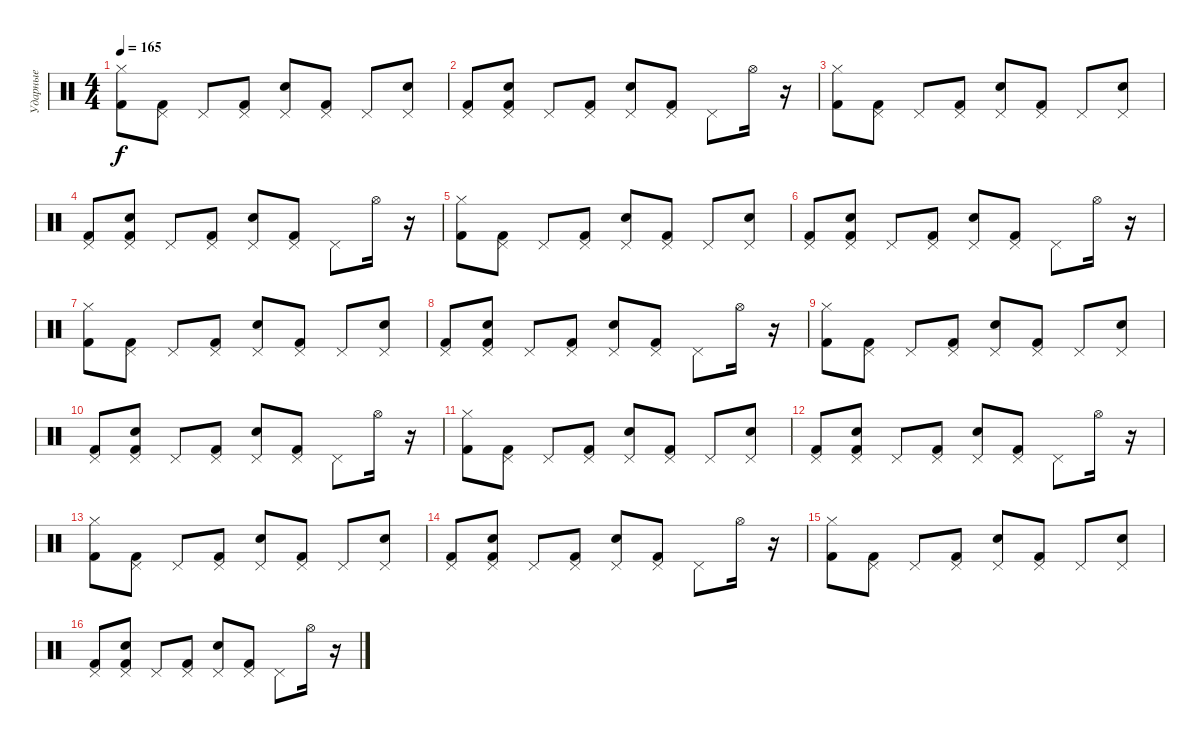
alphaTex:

\track ("Ударные" "Ударные") {instrument percussion}
\staff {score}
\articulation defaults
\ts (4 4)
\tempo 165
\clef neutral
\ks c
("Hi-Hat (closed)" "Kick (hit) 2").8{dy f} ("Pedal Hi-Hat (hit)" "Kick (hit) 2").8 "Pedal Hi-Hat (hit)".8 ("Pedal Hi-Hat (hit)" "Kick (hit) 2").8 ("Pedal Hi-Hat (hit)" "Electric Snare (hit)").8 ("Pedal Hi-Hat (hit)" "Kick (hit) 2").8 "Pedal Hi-Hat (hit)".8 ("Pedal Hi-Hat (hit)" "Electric Snare (hit)").8 |
("Pedal Hi-Hat (hit)" "Kick (hit) 2").8 ("Pedal Hi-Hat (hit)" "Electric Snare (hit)" "Kick (hit) 2").8 "Pedal Hi-Hat (hit)".8 ("Pedal Hi-Hat (hit)" "Kick (hit) 2").8 ("Pedal Hi-Hat (hit)" "Electric Snare (hit)").8 ("Pedal Hi-Hat (hit)" "Kick (hit) 2").8 "Pedal Hi-Hat (hit)".8 "Hi-Hat (open)".16 r.16 |
("Hi-Hat (closed)" "Kick (hit) 2").8 ("Pedal Hi-Hat (hit)" "Kick (hit) 2").8 "Pedal Hi-Hat (hit)".8 ("Pedal Hi-Hat (hit)" "Kick (hit) 2").8 ("Pedal Hi-Hat (hit)" "Electric Snare (hit)").8 ("Pedal Hi-Hat (hit)" "Kick (hit) 2").8 "Pedal Hi-Hat (hit)".8 ("Pedal Hi-Hat (hit)" "Electric Snare (hit)").8 |
("Pedal Hi-Hat (hit)" "Kick (hit) 2").8 ("Pedal Hi-Hat (hit)" "Electric Snare (hit)" "Kick (hit) 2").8 "Pedal Hi-Hat (hit)".8 ("Pedal Hi-Hat (hit)" "Kick (hit) 2").8 ("Pedal Hi-Hat (hit)" "Electric Snare (hit)").8 ("Pedal Hi-Hat (hit)" "Kick (hit) 2").8 "Pedal Hi-Hat (hit)".8 "Hi-Hat (open)".16 r.16 |
("Hi-Hat (closed)" "Kick (hit) 2").8 ("Pedal Hi-Hat (hit)" "Kick (hit) 2").8 "Pedal Hi-Hat (hit)".8 ("Pedal Hi-Hat (hit)" "Kick (hit) 2").8 ("Pedal Hi-Hat (hit)" "Electric Snare (hit)").8 ("Pedal Hi-Hat (hit)" "Kick (hit) 2").8 "Pedal Hi-Hat (hit)".8 ("Pedal Hi-Hat (hit)" "Electric Snare (hit)").8 |
("Pedal Hi-Hat (hit)" "Kick (hit) 2").8 ("Pedal Hi-Hat (hit)" "Electric Snare (hit)" "Kick (hit) 2").8 "Pedal Hi-Hat (hit)".8 ("Pedal Hi-Hat (hit)" "Kick (hit) 2").8 ("Pedal Hi-Hat (hit)" "Electric Snare (hit)").8 ("Pedal Hi-Hat (hit)" "Kick (hit) 2").8 "Pedal Hi-Hat (hit)".8 "Hi-Hat (open)".16 r.16 |
("Hi-Hat (closed)" "Kick (hit) 2").8 ("Pedal Hi-Hat (hit)" "Kick (hit) 2").8 "Pedal Hi-Hat (hit)".8 ("Pedal Hi-Hat (hit)" "Kick (hit) 2").8 ("Pedal Hi-Hat (hit)" "Electric Snare (hit)").8 ("Pedal Hi-Hat (hit)" "Kick (hit) 2").8 "Pedal Hi-Hat (hit)".8 ("Pedal Hi-Hat (hit)" "Electric Snare (hit)").8 |
("Pedal Hi-Hat (hit)" "Kick (hit) 2").8 ("Pedal Hi-Hat (hit)" "Electric Snare (hit)" "Kick (hit) 2").8 "Pedal Hi-Hat (hit)".8 ("Pedal Hi-Hat (hit)" "Kick (hit) 2").8 ("Pedal Hi-Hat (hit)" "Electric Snare (hit)").8 ("Pedal Hi-Hat (hit)" "Kick (hit) 2").8 "Pedal Hi-Hat (hit)".8 "Hi-Hat (open)".16 r.16 |
("Hi-Hat (closed)" "Kick (hit) 2").8 ("Pedal Hi-Hat (hit)" "Kick (hit) 2").8 "Pedal Hi-Hat (hit)".8 ("Pedal Hi-Hat (hit)" "Kick (hit) 2").8 ("Pedal Hi-Hat (hit)" "Electric Snare (hit)").8 ("Pedal Hi-Hat (hit)" "Kick (hit) 2").8 "Pedal Hi-Hat (hit)".8 ("Pedal Hi-Hat (hit)" "Electric Snare (hit)").8 |
("Pedal Hi-Hat (hit)" "Kick (hit) 2").8 ("Pedal Hi-Hat (hit)" "Electric Snare (hit)" "Kick (hit) 2").8 "Pedal Hi-Hat (hit)".8 ("Pedal Hi-Hat (hit)" "Kick (hit) 2").8 ("Pedal Hi-Hat (hit)" "Electric Snare (hit)").8 ("Pedal Hi-Hat (hit)" "Kick (hit) 2").8 "Pedal Hi-Hat (hit)".8 "Hi-Hat (open)".16 r.16 |
("Hi-Hat (closed)" "Kick (hit) 2").8 ("Pedal Hi-Hat (hit)" "Kick (hit) 2").8 "Pedal Hi-Hat (hit)".8 ("Pedal Hi-Hat (hit)" "Kick (hit) 2").8 ("Pedal Hi-Hat (hit)" "Electric Snare (hit)").8 ("Pedal Hi-Hat (hit)" "Kick (hit) 2").8 "Pedal Hi-Hat (hit)".8 ("Pedal Hi-Hat (hit)" "Electric Snare (hit)").8 |
("Pedal Hi-Hat (hit)" "Kick (hit) 2").8 ("Pedal Hi-Hat (hit)" "Electric Snare (hit)" "Kick (hit) 2").8 "Pedal Hi-Hat (hit)".8 ("Pedal Hi-Hat (hit)" "Kick (hit) 2").8 ("Pedal Hi-Hat (hit)" "Electric Snare (hit)").8 ("Pedal Hi-Hat (hit)" "Kick (hit) 2").8 "Pedal Hi-Hat (hit)".8 "Hi-Hat (open)".16 r.16 |
("Hi-Hat (closed)" "Kick (hit) 2").8 ("Pedal Hi-Hat (hit)" "Kick (hit) 2").8 "Pedal Hi-Hat (hit)".8 ("Pedal Hi-Hat (hit)" "Kick (hit) 2").8 ("Pedal Hi-Hat (hit)" "Electric Snare (hit)").8 ("Pedal Hi-Hat (hit)" "Kick (hit) 2").8 "Pedal Hi-Hat (hit)".8 ("Pedal Hi-Hat (hit)" "Electric Snare (hit)").8 |
("Pedal Hi-Hat (hit)" "Kick (hit) 2").8 ("Pedal Hi-Hat (hit)" "Electric Snare (hit)" "Kick (hit) 2").8 "Pedal Hi-Hat (hit)".8 ("Pedal Hi-Hat (hit)" "Kick (hit) 2").8 ("Pedal Hi-Hat (hit)" "Electric Snare (hit)").8 ("Pedal Hi-Hat (hit)" "Kick (hit) 2").8 "Pedal Hi-Hat (hit)".8 "Hi-Hat (open)".16 r.16 |
("Hi-Hat (closed)" "Kick (hit) 2").8 ("Pedal Hi-Hat (hit)" "Kick (hit) 2").8 "Pedal Hi-Hat (hit)".8 ("Pedal Hi-Hat (hit)" "Kick (hit) 2").8 ("Pedal Hi-Hat (hit)" "Electric Snare (hit)").8 ("Pedal Hi-Hat (hit)" "Kick (hit) 2").8 "Pedal Hi-Hat (hit)".8 ("Pedal Hi-Hat (hit)" "Electric Snare (hit)").8 |
("Pedal Hi-Hat (hit)" "Kick (hit) 2").8 ("Pedal Hi-Hat (hit)" "Electric Snare (hit)" "Kick (hit) 2").8 "Pedal Hi-Hat (hit)".8 ("Pedal Hi-Hat (hit)" "Kick (hit) 2").8 ("Pedal Hi-Hat (hit)" "Electric Snare (hit)").8 ("Pedal Hi-Hat (hit)" "Kick (hit) 2").8 "Pedal Hi-Hat (hit)".8 "Hi-Hat (open)".16 r.16
